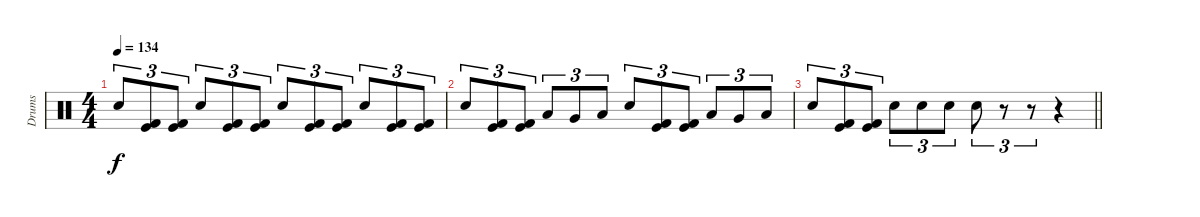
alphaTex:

\track ("Drums" "Drums") {instrument percussion}
\staff {score}
\articulation defaults
\ts (4 4)
\tempo 134
\clef neutral
\ks c "Electric Snare (hit)".8{tu (3 2) dy f}
("Kick (hit)" "Kick (hit) 2").8{tu (3 2)} ("Kick (hit)" "Kick (hit) 2").8{tu (3 2)} "Electric Snare (hit)".8{tu (3 2)} ("Kick (hit)" "Kick (hit) 2").8{tu (3 2)} ("Kick (hit)" "Kick (hit) 2").8{tu (3 2)} "Electric Snare (hit)".8{tu (3 2)} ("Kick (hit)" "Kick (hit) 2").8{tu (3 2)} ("Kick (hit)" "Kick (hit) 2").8{tu (3 2)} "Electric Snare (hit)".8{tu (3 2)} ("Kick (hit)" "Kick (hit) 2").8{tu (3 2)} ("Kick (hit)" "Kick (hit) 2").8{tu (3 2)} |
"Electric Snare (hit)".8{tu (3 2)} ("Kick (hit)" "Kick (hit) 2").8{tu (3 2)} ("Kick (hit)" "Kick (hit) 2").8{tu (3 2)} "Low Tom (hit)".8{tu (3 2)} "Very Low Tom (hit)".8{tu (3 2)} "Low Floor Tom (hit)".8{tu (3 2)} "Electric Snare (hit)".8{tu (3 2)} ("Kick (hit)" "Kick (hit) 2").8{tu (3 2)} ("Kick (hit)" "Kick (hit) 2").8{tu (3 2)} "Low Tom (hit)".8{tu (3 2)} "Very Low Tom (hit)".8{tu (3 2)} "Low Floor Tom (hit)".8{tu (3 2)} |
\barLineRight lightlight "Electric Snare (hit)".8{tu (3 2)}
("Kick (hit)" "Kick (hit) 2").8{tu (3 2)} ("Kick (hit)" "Kick (hit) 2").8{tu (3 2)} "Electric Snare (hit)".8{tu (3 2)} "Electric Snare (hit)".8{tu (3 2)} "Electric Snare (hit)".8{tu (3 2)} "Electric Snare (hit)".8{tu (3 2)} r.8{tu (3 2)} r.8{tu (3 2)} r.4
